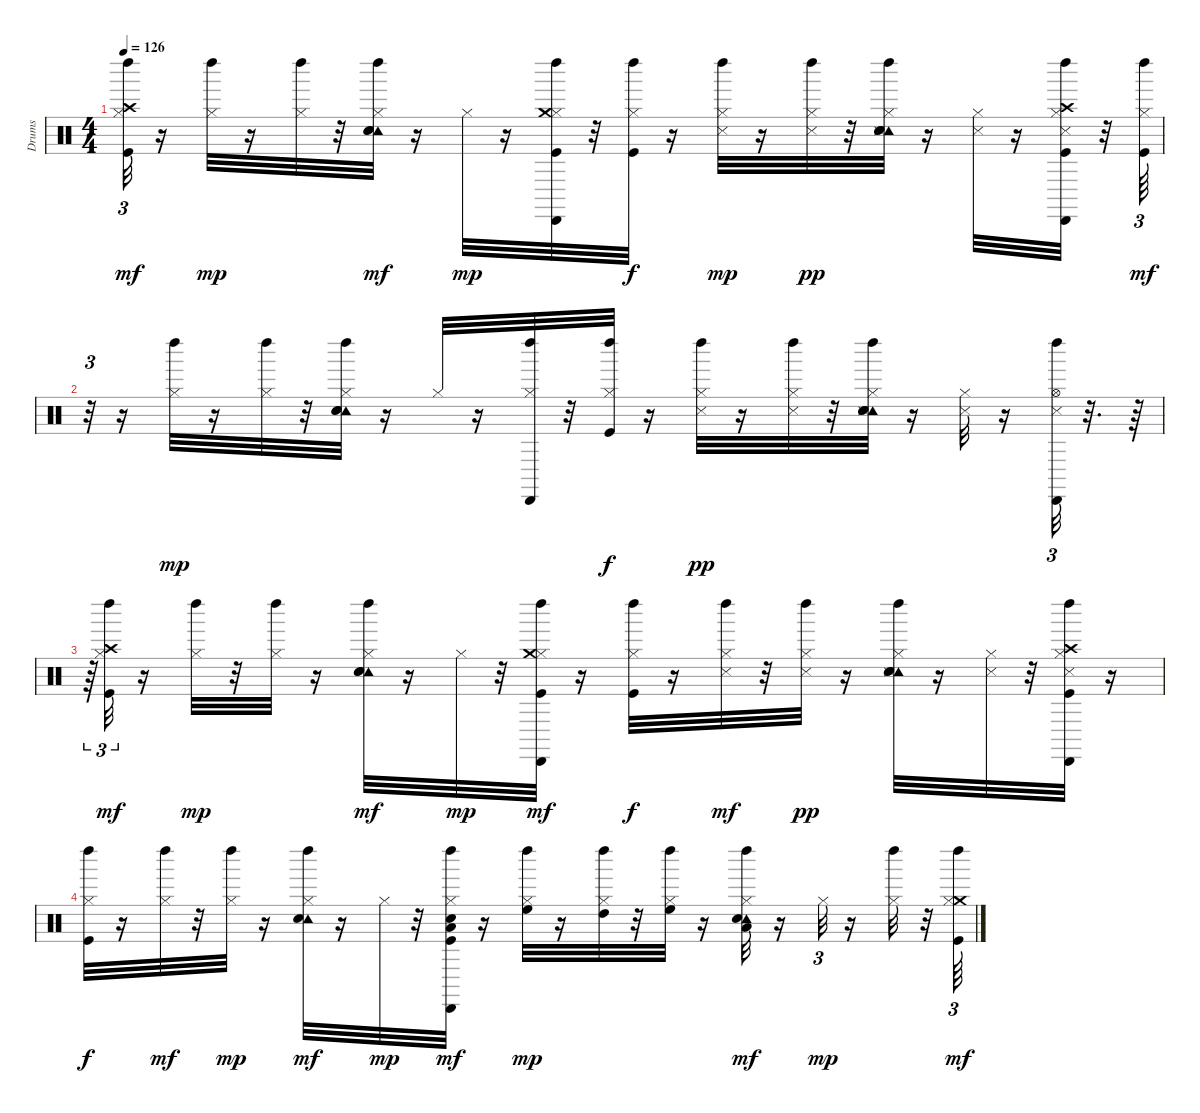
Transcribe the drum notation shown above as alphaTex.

\track ("Drums" "Drums") {instrument percussion}
\staff {score}
\articulation defaults
\ts (4 4)
\tempo 126
\clef neutral
\ks c
("Kick (hit)" "Hi-Hat (closed)" "Crash high (hit)" "Left Maraca (hit)").32{tu (3 2) dy mf} r.16 ("Hi-Hat (closed)" "Left Maraca (hit)").32{dy mp} r.16 ("Hi-Hat (closed)" "Left Maraca (hit)").32 r.32 ("Hi-Hat (closed)" "Tambourine (hit)" "Snare (hit) 2" "Left Maraca (hit)" "Hand Clap (hit)").32{dy mf} r.16 "Hi-Hat (closed)".32{dy mp} r.16 ("Cabasa (hit)" "Kick (hit)" "Hi-Hat (closed)" "Crash medium (hit)" "Left Maraca (hit)").32 r.32 ("Hi-Hat (closed)" "Kick (hit)" "Left Maraca (hit)").32{dy f} r.16 ("Hi-Hat (closed)" "Snare (side stick) 3" "Left Maraca (hit)").32{dy mp} r.16 ("Hi-Hat (closed)" "Left Maraca (hit)" "Snare (side stick) 3").32{dy pp} r.32 ("Hi-Hat (closed)" "Tambourine (hit)" "Hand Clap (hit)" "Snare (hit) 2" "Snare (side stick) 3" "Left Maraca (hit)").32 r.16 ("Hi-Hat (closed)" "Snare (side stick) 3").32 r.16 ("Cabasa (hit)" "Crash high (hit)" "Hi-Hat (closed)" "Kick (hit)" "Snare (side stick) 3" "Left Maraca (hit)").32 r.32 ("Left Maraca (hit)" "Kick (hit)" "Hi-Hat (closed)").64{tu (3 2) dy mf} |
r.32{tu (3 2)} r.16 ("Left Maraca (hit)" "Hi-Hat (closed)").32{dy mp} r.16 ("Left Maraca (hit)" "Hi-Hat (closed)").32 r.32 ("Left Maraca (hit)" "Tambourine (hit)" "Snare (hit) 2" "Hi-Hat (closed)" "Hand Clap (hit)").32 r.16 "Hi-Hat (closed)".32 r.16 ("Hi-Hat (closed)" "Left Maraca (hit)" "Cabasa (hit)").32 r.32 ("Kick (hit)" "Hi-Hat (closed)" "Left Maraca (hit)").32{dy f} r.16 ("Hi-Hat (closed)" "Left Maraca (hit)" "Snare (side stick) 3").32{dy pp} r.16 ("Hi-Hat (closed)" "Left Maraca (hit)" "Snare (side stick) 3").32 r.32 ("Hi-Hat (closed)" "Tambourine (hit)" "Hand Clap (hit)" "Snare (hit) 2" "Snare (side stick) 3" "Left Maraca (hit)").32 r.16 ("Hi-Hat (closed)" "Snare (side stick) 3").32 r.16 ("Hi-Hat (open)" "Cabasa (hit)" "Snare (side stick) 3" "Left Maraca (hit)").32{tu (3 2)} r.32{d} r.64 |
r.64{tu (3 2)} ("Kick (hit)" "Hi-Hat (closed)" "Crash high (hit)" "Left Maraca (hit)").32{tu (3 2) dy mf} r.16 ("Hi-Hat (closed)" "Left Maraca (hit)").32{dy mp} r.32 ("Hi-Hat (closed)" "Left Maraca (hit)").32 r.16 ("Hi-Hat (closed)" "Tambourine (hit)" "Snare (hit) 2" "Left Maraca (hit)" "Hand Clap (hit)").32{dy mf} r.16 "Hi-Hat (closed)".32{dy mp} r.32 ("Cabasa (hit)" "Kick (hit)" "Hi-Hat (closed)" "Crash medium (hit)" "Left Maraca (hit)").32{dy mf} r.16 ("Hi-Hat (closed)" "Kick (hit)" "Left Maraca (hit)").32{dy f} r.16 ("Hi-Hat (closed)" "Snare (side stick) 3" "Left Maraca (hit)").32{dy mf} r.32 ("Hi-Hat (closed)" "Left Maraca (hit)" "Snare (side stick) 3").32{dy pp} r.16 ("Hi-Hat (closed)" "Tambourine (hit)" "Hand Clap (hit)" "Snare (hit) 2" "Snare (side stick) 3" "Left Maraca (hit)").32 r.16 ("Hi-Hat (closed)" "Snare (side stick) 3").32 r.32 ("Cabasa (hit)" "Crash high (hit)" "Hi-Hat (closed)" "Kick (hit)" "Snare (side stick) 3" "Left Maraca (hit)").32 r.16 |
("Left Maraca (hit)" "Kick (hit)" "Hi-Hat (closed)").32{dy f} r.16 ("Left Maraca (hit)" "Hi-Hat (closed)").32{dy mf} r.32 ("Left Maraca (hit)" "Hi-Hat (closed)").32{dy mp} r.16 ("Left Maraca (hit)" "Tambourine (hit)" "Hi-Hat (closed)" "Hand Clap (hit)").32{dy mf} r.16 "Hi-Hat (closed)".32{dy mp} r.32 ("Kick (hit)" "Snare (hit) 2" "Hi-Hat (closed)" "Low Tom (hit)" "Left Maraca (hit)" "Cabasa (hit)").32{dy mf} r.16 ("Hi-Hat (closed)" "High Floor Tom (hit)" "Left Maraca (hit)").32{dy mp} r.16 ("Hi-Hat (closed)" "Left Maraca (hit)" "High Tom (hit)").32 r.32 ("Hi-Hat (closed)" "Left Maraca (hit)" "High Floor Tom (hit)").32 r.16 ("Hi-Hat (closed)" "Tambourine (hit)" "Hand Clap (hit)" "Low Tom (hit)" "Left Maraca (hit)").32{dy mf} r.16 "Hi-Hat (closed)".32{tu (3 2) dy mp} r.16 ("Hi-Hat (closed)" "Left Maraca (hit)").32 r.32 ("Crash medium (hit)" "Kick (hit)" "Hi-Hat (closed)" "Left Maraca (hit)").64{tu (3 2) dy mf}
